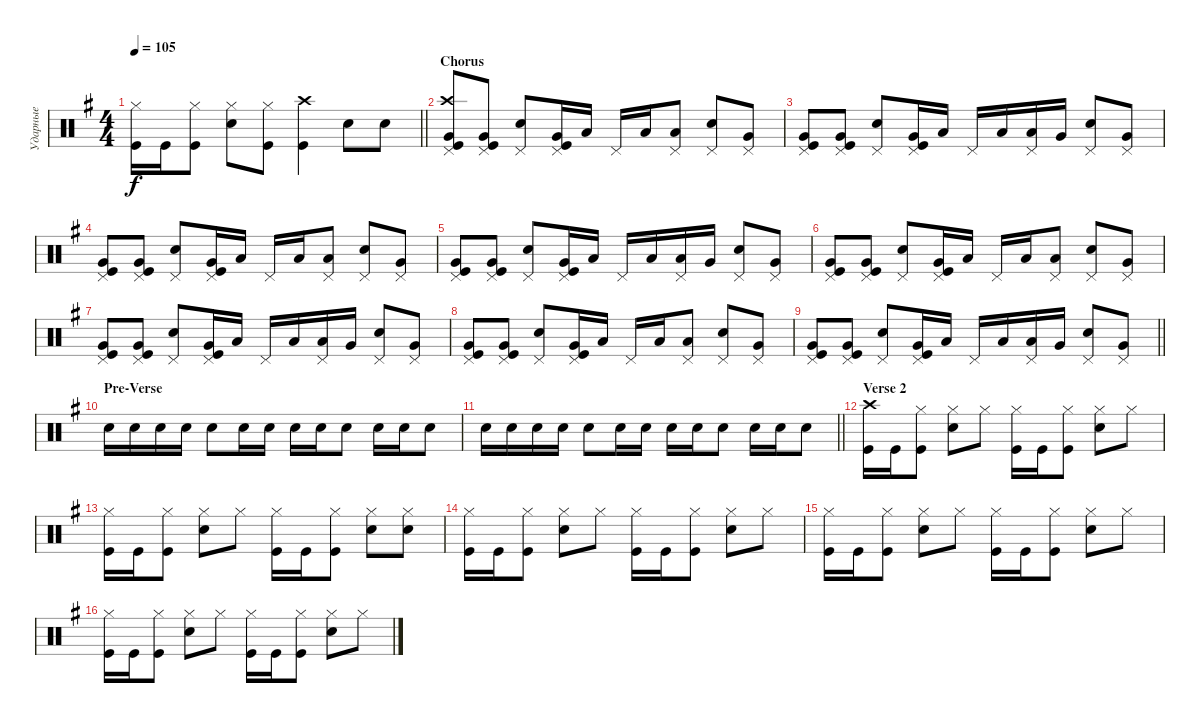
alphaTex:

\track ("Ударные" "Ударные") {instrument percussion}
\staff {score}
\articulation defaults
\ts (4 4)
\tempo 105
\clef neutral
\barLineRight lightlight
\ks eminor
("Kick (hit)" "Hi-Hat (closed)").16{dy f} "Kick (hit)".16 ("Kick (hit)" "Hi-Hat (closed)").8 ("Snare (hit) 2" "Hi-Hat (closed)").8 ("Hi-Hat (closed)" "Kick (hit)").8 ("Kick (hit)" "Crash high (hit)").4 "Snare (hit) 2".8 "Snare (hit) 2".8 |
\section ("" "Chorus")
("Kick (hit)" "Very Low Tom (hit)" "Pedal Hi-Hat (hit)" "Crash high (hit)").8 ("Kick (hit)" "Very Low Tom (hit)" "Pedal Hi-Hat (hit)").8 ("Snare (hit) 2" "Pedal Hi-Hat (hit)").8 ("Kick (hit)" "Very Low Tom (hit)" "Pedal Hi-Hat (hit)").16 "Low Tom (hit)".16 "Pedal Hi-Hat (hit)".16 "Low Tom (hit)".16 ("Low Tom (hit)" "Pedal Hi-Hat (hit)").8 ("Snare (hit) 2" "Pedal Hi-Hat (hit)").8 ("Very Low Tom (hit)" "Pedal Hi-Hat (hit)").8 |
("Kick (hit)" "Very Low Tom (hit)" "Pedal Hi-Hat (hit)").8 ("Kick (hit)" "Very Low Tom (hit)" "Pedal Hi-Hat (hit)").8 ("Snare (hit) 2" "Pedal Hi-Hat (hit)").8 ("Kick (hit)" "Very Low Tom (hit)" "Pedal Hi-Hat (hit)").16 "Low Tom (hit)".16 "Pedal Hi-Hat (hit)".16 "Low Tom (hit)".16 ("Low Tom (hit)" "Pedal Hi-Hat (hit)").16 "Very Low Tom (hit)".16 ("Snare (hit) 2" "Pedal Hi-Hat (hit)").8 ("Very Low Tom (hit)" "Pedal Hi-Hat (hit)").8 |
("Kick (hit)" "Very Low Tom (hit)" "Pedal Hi-Hat (hit)").8 ("Kick (hit)" "Very Low Tom (hit)" "Pedal Hi-Hat (hit)").8 ("Snare (hit) 2" "Pedal Hi-Hat (hit)").8 ("Kick (hit)" "Very Low Tom (hit)" "Pedal Hi-Hat (hit)").16 "Low Tom (hit)".16 "Pedal Hi-Hat (hit)".16 "Low Tom (hit)".16 ("Low Tom (hit)" "Pedal Hi-Hat (hit)").8 ("Snare (hit) 2" "Pedal Hi-Hat (hit)").8 ("Very Low Tom (hit)" "Pedal Hi-Hat (hit)").8 |
("Kick (hit)" "Very Low Tom (hit)" "Pedal Hi-Hat (hit)").8 ("Kick (hit)" "Very Low Tom (hit)" "Pedal Hi-Hat (hit)").8 ("Snare (hit) 2" "Pedal Hi-Hat (hit)").8 ("Kick (hit)" "Very Low Tom (hit)" "Pedal Hi-Hat (hit)").16 "Low Tom (hit)".16 "Pedal Hi-Hat (hit)".16 "Low Tom (hit)".16 ("Low Tom (hit)" "Pedal Hi-Hat (hit)").16 "Very Low Tom (hit)".16 ("Snare (hit) 2" "Pedal Hi-Hat (hit)").8 ("Very Low Tom (hit)" "Pedal Hi-Hat (hit)").8 |
("Kick (hit)" "Very Low Tom (hit)" "Pedal Hi-Hat (hit)").8 ("Kick (hit)" "Very Low Tom (hit)" "Pedal Hi-Hat (hit)").8 ("Snare (hit) 2" "Pedal Hi-Hat (hit)").8 ("Kick (hit)" "Very Low Tom (hit)" "Pedal Hi-Hat (hit)").16 "Low Tom (hit)".16 "Pedal Hi-Hat (hit)".16 "Low Tom (hit)".16 ("Low Tom (hit)" "Pedal Hi-Hat (hit)").8 ("Snare (hit) 2" "Pedal Hi-Hat (hit)").8 ("Very Low Tom (hit)" "Pedal Hi-Hat (hit)").8 |
("Kick (hit)" "Very Low Tom (hit)" "Pedal Hi-Hat (hit)").8 ("Kick (hit)" "Very Low Tom (hit)" "Pedal Hi-Hat (hit)").8 ("Snare (hit) 2" "Pedal Hi-Hat (hit)").8 ("Kick (hit)" "Very Low Tom (hit)" "Pedal Hi-Hat (hit)").16 "Low Tom (hit)".16 "Pedal Hi-Hat (hit)".16 "Low Tom (hit)".16 ("Low Tom (hit)" "Pedal Hi-Hat (hit)").16 "Very Low Tom (hit)".16 ("Snare (hit) 2" "Pedal Hi-Hat (hit)").8 ("Very Low Tom (hit)" "Pedal Hi-Hat (hit)").8 |
("Kick (hit)" "Very Low Tom (hit)" "Pedal Hi-Hat (hit)").8 ("Kick (hit)" "Very Low Tom (hit)" "Pedal Hi-Hat (hit)").8 ("Snare (hit) 2" "Pedal Hi-Hat (hit)").8 ("Kick (hit)" "Very Low Tom (hit)" "Pedal Hi-Hat (hit)").16 "Low Tom (hit)".16 "Pedal Hi-Hat (hit)".16 "Low Tom (hit)".16 ("Low Tom (hit)" "Pedal Hi-Hat (hit)").8 ("Snare (hit) 2" "Pedal Hi-Hat (hit)").8 ("Very Low Tom (hit)" "Pedal Hi-Hat (hit)").8 |
\barLineRight lightlight
("Kick (hit)" "Very Low Tom (hit)" "Pedal Hi-Hat (hit)").8 ("Kick (hit)" "Very Low Tom (hit)" "Pedal Hi-Hat (hit)").8 ("Snare (hit) 2" "Pedal Hi-Hat (hit)").8 ("Kick (hit)" "Very Low Tom (hit)" "Pedal Hi-Hat (hit)").16 "Low Tom (hit)".16 "Pedal Hi-Hat (hit)".16 "Low Tom (hit)".16 ("Low Tom (hit)" "Pedal Hi-Hat (hit)").16 "Very Low Tom (hit)".16 ("Snare (hit) 2" "Pedal Hi-Hat (hit)").8 ("Very Low Tom (hit)" "Pedal Hi-Hat (hit)").8 |
\section ("" "Pre-Verse")
"Snare (hit) 2".16 "Snare (hit) 2".16 "Snare (hit) 2".16 "Snare (hit) 2".16 "Snare (hit) 2".8 "Snare (hit) 2".16 "Snare (hit) 2".16 "Snare (hit) 2".16 "Snare (hit) 2".16 "Snare (hit) 2".8 "Snare (hit) 2".16 "Snare (hit) 2".16 "Snare (hit) 2".8 |
\barLineRight lightlight "Snare (hit) 2".16 "Snare (hit) 2".16 "Snare (hit) 2".16 "Snare (hit) 2".16 "Snare (hit) 2".8 "Snare (hit) 2".16 "Snare (hit) 2".16 "Snare (hit) 2".16 "Snare (hit) 2".16 "Snare (hit) 2".8 "Snare (hit) 2".16 "Snare (hit) 2".16 "Snare (hit) 2".8
|
\section ("" "Verse 2")
("Kick (hit)" "Crash high (hit)").16 "Kick (hit)".16 ("Kick (hit)" "Hi-Hat (closed)").8 ("Snare (hit) 2" "Hi-Hat (closed)").8 "Hi-Hat (closed)".8 ("Kick (hit)" "Hi-Hat (closed)").16 "Kick (hit)".16 ("Kick (hit)" "Hi-Hat (closed)").8 ("Snare (hit) 2" "Hi-Hat (closed)").8 "Hi-Hat (closed)".8 |
("Kick (hit)" "Hi-Hat (closed)").16 "Kick (hit)".16 ("Kick (hit)" "Hi-Hat (closed)").8 ("Snare (hit) 2" "Hi-Hat (closed)").8 "Hi-Hat (closed)".8 ("Kick (hit)" "Hi-Hat (closed)").16 "Kick (hit)".16 ("Kick (hit)" "Hi-Hat (closed)").8 ("Snare (hit) 2" "Hi-Hat (closed)").8 ("Hi-Hat (closed)" "Snare (hit) 2").8 |
("Kick (hit)" "Hi-Hat (closed)").16 "Kick (hit)".16 ("Kick (hit)" "Hi-Hat (closed)").8 ("Snare (hit) 2" "Hi-Hat (closed)").8 "Hi-Hat (closed)".8 ("Kick (hit)" "Hi-Hat (closed)").16 "Kick (hit)".16 ("Kick (hit)" "Hi-Hat (closed)").8 ("Snare (hit) 2" "Hi-Hat (closed)").8 "Hi-Hat (closed)".8 |
("Kick (hit)" "Hi-Hat (closed)").16 "Kick (hit)".16 ("Kick (hit)" "Hi-Hat (closed)").8 ("Snare (hit) 2" "Hi-Hat (closed)").8 "Hi-Hat (closed)".8 ("Kick (hit)" "Hi-Hat (closed)").16 "Kick (hit)".16 ("Kick (hit)" "Hi-Hat (closed)").8 ("Snare (hit) 2" "Hi-Hat (closed)").8 "Hi-Hat (closed)".8 |
("Kick (hit)" "Hi-Hat (closed)").16 "Kick (hit)".16 ("Kick (hit)" "Hi-Hat (closed)").8 ("Snare (hit) 2" "Hi-Hat (closed)").8 "Hi-Hat (closed)".8 ("Kick (hit)" "Hi-Hat (closed)").16 "Kick (hit)".16 ("Kick (hit)" "Hi-Hat (closed)").8 ("Snare (hit) 2" "Hi-Hat (closed)").8 "Hi-Hat (closed)".8
